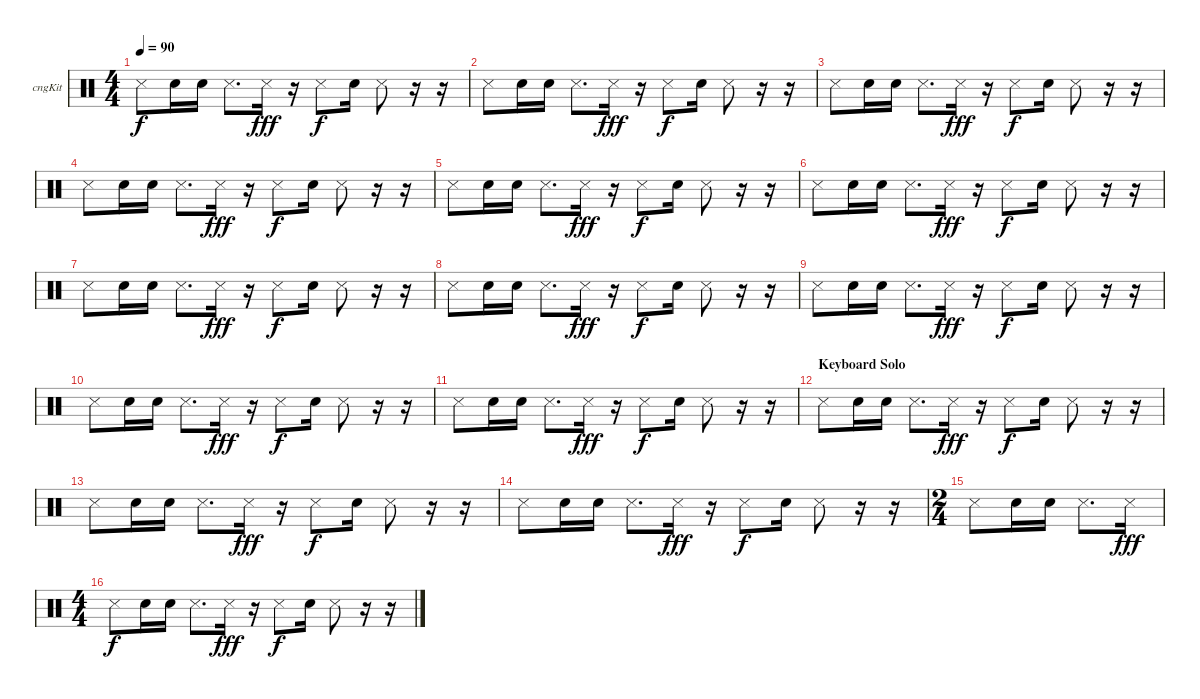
\bracketExtendMode groupsimilarinstruments
\firstSystemTrackNameOrientation horizontal
\otherSystemsTrackNameOrientation horizontal
\track ("Congas" "cngKit") {multiBarRest instrument percussion}
\staff {score}
\articulation defaults
\ts (4 4)
\tempo 90
\clef neutral
\ks c "Snare (side stick) 3".8{dy f} "Snare (hit) 2".16 "Snare (hit) 2".16 "Snare (side stick) 3".8{d} "Snare (side stick) 3".16{dy fff}
r.16 "Snare (side stick) 3".8{dy f} "Snare (hit) 2".16 "Snare (side stick) 3".8 r.16 r.16 |
"Snare (side stick) 3".8 "Snare (hit) 2".16 "Snare (hit) 2".16 "Snare (side stick) 3".8{d} "Snare (side stick) 3".16{dy fff} r.16 "Snare (side stick) 3".8{dy f} "Snare (hit) 2".16 "Snare (side stick) 3".8 r.16 r.16 |
"Snare (side stick) 3".8 "Snare (hit) 2".16 "Snare (hit) 2".16 "Snare (side stick) 3".8{d} "Snare (side stick) 3".16{dy fff} r.16 "Snare (side stick) 3".8{dy f} "Snare (hit) 2".16 "Snare (side stick) 3".8 r.16 r.16 |
"Snare (side stick) 3".8 "Snare (hit) 2".16 "Snare (hit) 2".16 "Snare (side stick) 3".8{d} "Snare (side stick) 3".16{dy fff} r.16 "Snare (side stick) 3".8{dy f} "Snare (hit) 2".16 "Snare (side stick) 3".8 r.16 r.16 |
"Snare (side stick) 3".8 "Snare (hit) 2".16 "Snare (hit) 2".16 "Snare (side stick) 3".8{d} "Snare (side stick) 3".16{dy fff} r.16 "Snare (side stick) 3".8{dy f} "Snare (hit) 2".16 "Snare (side stick) 3".8 r.16 r.16 |
"Snare (side stick) 3".8 "Snare (hit) 2".16 "Snare (hit) 2".16 "Snare (side stick) 3".8{d} "Snare (side stick) 3".16{dy fff} r.16 "Snare (side stick) 3".8{dy f} "Snare (hit) 2".16 "Snare (side stick) 3".8 r.16 r.16 |
"Snare (side stick) 3".8 "Snare (hit) 2".16 "Snare (hit) 2".16 "Snare (side stick) 3".8{d} "Snare (side stick) 3".16{dy fff} r.16 "Snare (side stick) 3".8{dy f} "Snare (hit) 2".16 "Snare (side stick) 3".8 r.16 r.16 |
"Snare (side stick) 3".8 "Snare (hit) 2".16 "Snare (hit) 2".16 "Snare (side stick) 3".8{d} "Snare (side stick) 3".16{dy fff} r.16 "Snare (side stick) 3".8{dy f} "Snare (hit) 2".16 "Snare (side stick) 3".8 r.16 r.16 |
"Snare (side stick) 3".8 "Snare (hit) 2".16 "Snare (hit) 2".16 "Snare (side stick) 3".8{d} "Snare (side stick) 3".16{dy fff} r.16 "Snare (side stick) 3".8{dy f} "Snare (hit) 2".16 "Snare (side stick) 3".8 r.16 r.16 |
"Snare (side stick) 3".8 "Snare (hit) 2".16 "Snare (hit) 2".16 "Snare (side stick) 3".8{d} "Snare (side stick) 3".16{dy fff} r.16 "Snare (side stick) 3".8{dy f} "Snare (hit) 2".16 "Snare (side stick) 3".8 r.16 r.16 |
"Snare (side stick) 3".8 "Snare (hit) 2".16 "Snare (hit) 2".16 "Snare (side stick) 3".8{d} "Snare (side stick) 3".16{dy fff} r.16 "Snare (side stick) 3".8{dy f} "Snare (hit) 2".16 "Snare (side stick) 3".8 r.16 r.16 |
\section ("" "Keyboard Solo")
"Snare (side stick) 3".8 "Snare (hit) 2".16 "Snare (hit) 2".16 "Snare (side stick) 3".8{d} "Snare (side stick) 3".16{dy fff} r.16 "Snare (side stick) 3".8{dy f} "Snare (hit) 2".16 "Snare (side stick) 3".8 r.16 r.16 |
"Snare (side stick) 3".8 "Snare (hit) 2".16 "Snare (hit) 2".16 "Snare (side stick) 3".8{d} "Snare (side stick) 3".16{dy fff} r.16 "Snare (side stick) 3".8{dy f} "Snare (hit) 2".16 "Snare (side stick) 3".8 r.16 r.16 |
"Snare (side stick) 3".8 "Snare (hit) 2".16 "Snare (hit) 2".16 "Snare (side stick) 3".8{d} "Snare (side stick) 3".16{dy fff} r.16 "Snare (side stick) 3".8{dy f} "Snare (hit) 2".16 "Snare (side stick) 3".8 r.16 r.16 |
\ts (2 4)
\beaming (8 2 2)
"Snare (side stick) 3".8 "Snare (hit) 2".16 "Snare (hit) 2".16 "Snare (side stick) 3".8{d} "Snare (side stick) 3".16{dy fff} |
\ts (4 4)
\beaming (8 2 2 2 2)
"Snare (side stick) 3".8{dy f} "Snare (hit) 2".16 "Snare (hit) 2".16 "Snare (side stick) 3".8{d} "Snare (side stick) 3".16{dy fff} r.16 "Snare (side stick) 3".8{dy f} "Snare (hit) 2".16 "Snare (side stick) 3".8 r.16 r.16
